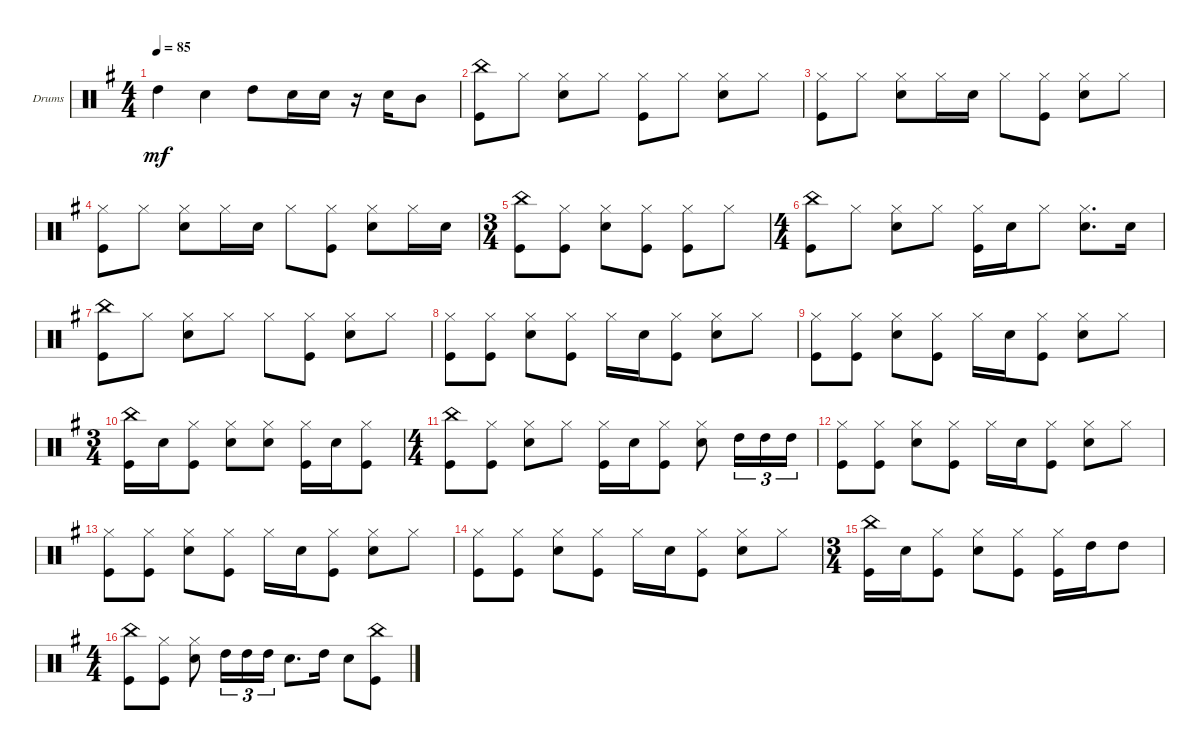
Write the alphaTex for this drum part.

\defaultSystemsLayout 4
\bracketExtendMode groupsimilarinstruments
\firstSystemTrackNameOrientation horizontal
\otherSystemsTrackNameOrientation horizontal
\track ("Ian Paice" "Drums") {instrument percussion}
\staff {score}
\articulation defaults
\ts (4 4)
\tempo 85
\clef neutral
\ks g "High Tom (hit)".4{dy mf} "Snare (hit) 2".4 "High Tom (hit)".8 "Snare (hit) 2".16 "Snare (hit) 2".16
r.16 "Snare (hit) 2".16 "Mid Tom (hit)".8 |
("China (hit)" "Kick (hit)").8 "Hi-Hat (closed)".8 ("Hi-Hat (closed)" "Snare (hit) 2").8 "Hi-Hat (closed)".8 ("Hi-Hat (closed)" "Kick (hit)").8 "Hi-Hat (closed)".8 ("Hi-Hat (closed)" "Snare (hit) 2").8 "Hi-Hat (closed)".8 |
("Hi-Hat (closed)" "Kick (hit)").8 "Hi-Hat (closed)".8 ("Hi-Hat (closed)" "Snare (hit) 2").8 "Hi-Hat (closed)".16 "Snare (hit) 2".16 "Hi-Hat (closed)".8 ("Hi-Hat (closed)" "Kick (hit)").8 ("Hi-Hat (closed)" "Snare (hit) 2").8 "Hi-Hat (closed)".8 |
("Hi-Hat (closed)" "Kick (hit)").8 "Hi-Hat (closed)".8 ("Hi-Hat (closed)" "Snare (hit) 2").8 "Hi-Hat (closed)".16 "Snare (hit) 2".16 "Hi-Hat (closed)".8 ("Hi-Hat (closed)" "Kick (hit)").8 ("Hi-Hat (closed)" "Snare (hit) 2").8 "Hi-Hat (closed)".16 "Snare (hit) 2".16 |
\ts (3 4)
("China (hit)" "Kick (hit)").8 ("Hi-Hat (closed)" "Kick (hit)").8 ("Snare (hit) 2" "Hi-Hat (closed)").8 ("Hi-Hat (closed)" "Kick (hit)").8 ("Kick (hit)" "Hi-Hat (closed)").8 "Hi-Hat (closed)".8 |
\ts (4 4)
("China (hit)" "Kick (hit)").8 "Hi-Hat (closed)".8 ("Hi-Hat (closed)" "Snare (hit) 2").8 "Hi-Hat (closed)".8 ("Hi-Hat (closed)" "Kick (hit)").16 "Snare (hit) 2".16 "Hi-Hat (closed)".8 ("Hi-Hat (closed)" "Snare (hit) 2").8{d} "Snare (hit) 2".16 |
("China (hit)" "Kick (hit)").8 "Hi-Hat (closed)".8 ("Hi-Hat (closed)" "Snare (hit) 2").8 "Hi-Hat (closed)".8 "Hi-Hat (closed)".8 ("Hi-Hat (closed)" "Kick (hit)").8 ("Snare (hit) 2" "Hi-Hat (closed)").8 "Hi-Hat (closed)".8 |
("Hi-Hat (closed)" "Kick (hit)").8 ("Hi-Hat (closed)" "Kick (hit)").8 ("Hi-Hat (closed)" "Snare (hit) 2").8 ("Hi-Hat (closed)" "Kick (hit)").8 "Hi-Hat (closed)".16 "Snare (hit) 2".16 ("Hi-Hat (closed)" "Kick (hit)").8 ("Hi-Hat (closed)" "Snare (hit) 2").8 "Hi-Hat (closed)".8 |
("Hi-Hat (closed)" "Kick (hit)").8 ("Hi-Hat (closed)" "Kick (hit)").8 ("Hi-Hat (closed)" "Snare (hit) 2").8 ("Hi-Hat (closed)" "Kick (hit)").8 "Hi-Hat (closed)".16 "Snare (hit) 2".16 ("Hi-Hat (closed)" "Kick (hit)").8 ("Hi-Hat (closed)" "Snare (hit) 2").8 "Hi-Hat (closed)".8 |
\ts (3 4)
("China (hit)" "Kick (hit)").16 "Snare (hit) 2".16 ("Hi-Hat (closed)" "Kick (hit)").8 ("Snare (hit) 2" "Hi-Hat (closed)").8 ("Snare (hit) 2" "Hi-Hat (closed)").8 ("Hi-Hat (closed)" "Kick (hit)").16 "Snare (hit) 2".16 ("Hi-Hat (closed)" "Kick (hit)").8 |
\ts (4 4)
("China (hit)" "Kick (hit)").8 ("Kick (hit)" "Hi-Hat (closed)").8 ("Hi-Hat (closed)" "Snare (hit) 2").8 "Hi-Hat (closed)".8 ("Hi-Hat (closed)" "Kick (hit)").16 "Snare (hit) 2".16 ("Hi-Hat (closed)" "Kick (hit)").8 ("Snare (hit) 2" "Hi-Hat (closed)").8 "High Tom (hit)".16{tu (3 2)} "High Tom (hit)".16{tu (3 2)} "High Tom (hit)".16{tu (3 2)} |
\scale
0.922235 ("Hi-Hat (closed)" "Kick (hit)").8 ("Hi-Hat (closed)" "Kick (hit)").8 ("Hi-Hat (closed)" "Snare (hit) 2").8 ("Hi-Hat (closed)" "Kick (hit)").8 "Hi-Hat (closed)".16 "Snare (hit) 2".16 ("Hi-Hat (closed)" "Kick (hit)").8 ("Hi-Hat (closed)" "Snare (hit) 2").8 "Hi-Hat (closed)".8 |
\scale
1.75047 ("Hi-Hat (closed)" "Kick (hit)").8 ("Hi-Hat (closed)" "Kick (hit)").8 ("Hi-Hat (closed)" "Snare (hit) 2").8 ("Hi-Hat (closed)" "Kick (hit)").8 "Hi-Hat (closed)".16 "Snare (hit) 2".16 ("Hi-Hat (closed)" "Kick (hit)").8 ("Hi-Hat (closed)" "Snare (hit) 2").8 "Hi-Hat (closed)".8 |
\scale
0.329587 ("Hi-Hat (closed)" "Kick (hit)").8 ("Hi-Hat (closed)" "Kick (hit)").8 ("Hi-Hat (closed)" "Snare (hit) 2").8 ("Hi-Hat (closed)" "Kick (hit)").8 "Hi-Hat (closed)".16 "Snare (hit) 2".16 ("Hi-Hat (closed)" "Kick (hit)").8 ("Hi-Hat (closed)" "Snare (hit) 2").8 "Hi-Hat (closed)".8 |
\ts (3 4)
("China (hit)" "Kick (hit)").16 "Snare (hit) 2".16 ("Hi-Hat (closed)" "Kick (hit)").8 ("Hi-Hat (closed)" "Snare (hit) 2").8 ("Hi-Hat (closed)" "Kick (hit)").8 ("Kick (hit)" "Hi-Hat (closed)").16 "High Tom (hit)".16 "High Tom (hit)".8 |
\ts (4 4)
("China (hit)" "Kick (hit)").8 ("Kick (hit)" "Hi-Hat (closed)").8 ("Hi-Hat (closed)" "Snare (hit) 2").8 "High Tom (hit)".16{tu (3 2)} "High Tom (hit)".16{tu (3 2)} "High Tom (hit)".16{tu (3 2)} "Snare (hit) 2".8{d} "High Tom (hit)".16 "Snare (hit) 2".8 ("China (hit)" "Kick (hit)").8
